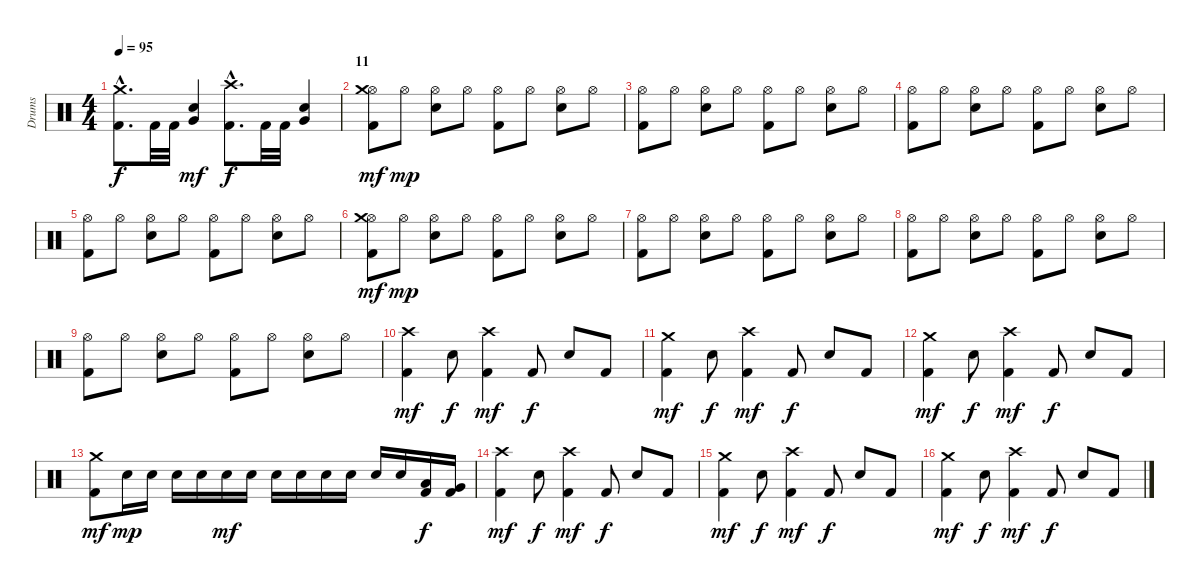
\track ("Drums" "Drums") {instrument percussion}
\staff {score}
\articulation defaults
\ts (4 4)
\tempo 95
\clef neutral
\ks c
("Kick (hit) 2"{hac} "Crash medium (hit)"{hac}).8{d dy f} "Kick (hit) 2".32 "Kick (hit) 2".32 ("Electric Snare (hit)" "Very Low Tom (hit)").4{dy mf} ("Kick (hit) 2"{hac} "Crash high (hit)"{hac}).8{d dy f} "Kick (hit) 2".32 "Kick (hit) 2".32 ("Electric Snare (hit)" "Very Low Tom (hit)").4 |
\section ("" "11")
("Kick (hit) 2" "Hi-Hat (open)" "Crash medium (hit)").8{dy mf} "Hi-Hat (open)".8{dy mp} ("Electric Snare (hit)" "Hi-Hat (open)").8 "Hi-Hat (open)".8 ("Kick (hit) 2" "Hi-Hat (open)").8 "Hi-Hat (open)".8 ("Electric Snare (hit)" "Hi-Hat (open)").8 "Hi-Hat (open)".8 |
("Kick (hit) 2" "Hi-Hat (open)").8 "Hi-Hat (open)".8 ("Electric Snare (hit)" "Hi-Hat (open)").8 "Hi-Hat (open)".8 ("Kick (hit) 2" "Hi-Hat (open)").8 "Hi-Hat (open)".8 ("Electric Snare (hit)" "Hi-Hat (open)").8 "Hi-Hat (open)".8 |
("Kick (hit) 2" "Hi-Hat (open)").8 "Hi-Hat (open)".8 ("Electric Snare (hit)" "Hi-Hat (open)").8 "Hi-Hat (open)".8 ("Kick (hit) 2" "Hi-Hat (open)").8 "Hi-Hat (open)".8 ("Electric Snare (hit)" "Hi-Hat (open)").8 "Hi-Hat (open)".8 |
("Kick (hit) 2" "Hi-Hat (open)").8 "Hi-Hat (open)".8 ("Electric Snare (hit)" "Hi-Hat (open)").8 "Hi-Hat (open)".8 ("Kick (hit) 2" "Hi-Hat (open)").8 "Hi-Hat (open)".8 ("Electric Snare (hit)" "Hi-Hat (open)").8 "Hi-Hat (open)".8 |
("Kick (hit) 2" "Hi-Hat (open)" "Crash medium (hit)").8{dy mf} "Hi-Hat (open)".8{dy mp} ("Electric Snare (hit)" "Hi-Hat (open)").8 "Hi-Hat (open)".8 ("Kick (hit) 2" "Hi-Hat (open)").8 "Hi-Hat (open)".8 ("Electric Snare (hit)" "Hi-Hat (open)").8 "Hi-Hat (open)".8 |
("Kick (hit) 2" "Hi-Hat (open)").8 "Hi-Hat (open)".8 ("Electric Snare (hit)" "Hi-Hat (open)").8 "Hi-Hat (open)".8 ("Kick (hit) 2" "Hi-Hat (open)").8 "Hi-Hat (open)".8 ("Electric Snare (hit)" "Hi-Hat (open)").8 "Hi-Hat (open)".8 |
("Kick (hit) 2" "Hi-Hat (open)").8 "Hi-Hat (open)".8 ("Electric Snare (hit)" "Hi-Hat (open)").8 "Hi-Hat (open)".8 ("Kick (hit) 2" "Hi-Hat (open)").8 "Hi-Hat (open)".8 ("Electric Snare (hit)" "Hi-Hat (open)").8 "Hi-Hat (open)".8 |
("Kick (hit) 2" "Hi-Hat (open)").8 "Hi-Hat (open)".8 ("Electric Snare (hit)" "Hi-Hat (open)").8 "Hi-Hat (open)".8 ("Kick (hit) 2" "Hi-Hat (open)").8 "Hi-Hat (open)".8 ("Electric Snare (hit)" "Hi-Hat (open)").8 "Hi-Hat (open)".8 |
("Kick (hit) 2" "Crash high (hit)").4{dy mf} "Electric Snare (hit)".8{dy f} ("Kick (hit) 2" "Crash high (hit)").4{dy mf} "Kick (hit) 2".8{dy f} "Electric Snare (hit)".8 "Kick (hit) 2".8 |
("Kick (hit) 2" "Crash medium (hit)").4{dy mf} "Electric Snare (hit)".8{dy f} ("Kick (hit) 2" "Crash high (hit)").4{dy mf} "Kick (hit) 2".8{dy f} "Electric Snare (hit)".8 "Kick (hit) 2".8 |
("Kick (hit) 2" "Crash medium (hit)").4{dy mf} "Electric Snare (hit)".8{dy f} ("Kick (hit) 2" "Crash high (hit)").4{dy mf} "Kick (hit) 2".8{dy f} "Electric Snare (hit)".8 "Kick (hit) 2".8 |
("Kick (hit) 2" "Crash medium (hit)").8{dy mf} "Electric Snare (hit)".16{dy mp} "Electric Snare (hit)".16 "Electric Snare (hit)".16 "Electric Snare (hit)".16 "Electric Snare (hit)".16{dy mf} "Electric Snare (hit)".16 "Electric Snare (hit)".16 "Electric Snare (hit)".16 "Electric Snare (hit)".16 "Electric Snare (hit)".16 "Electric Snare (hit)".16 "Electric Snare (hit)".16 ("Kick (hit) 2" "Low Tom (hit)").16{dy f} ("Kick (hit) 2" "Very Low Tom (hit)").16 |
("Kick (hit) 2" "Crash high (hit)").4{dy mf} "Electric Snare (hit)".8{dy f} ("Kick (hit) 2" "Crash high (hit)").4{dy mf} "Kick (hit) 2".8{dy f} "Electric Snare (hit)".8 "Kick (hit) 2".8 |
("Kick (hit) 2" "Crash medium (hit)").4{dy mf} "Electric Snare (hit)".8{dy f} ("Kick (hit) 2" "Crash high (hit)").4{dy mf} "Kick (hit) 2".8{dy f} "Electric Snare (hit)".8 "Kick (hit) 2".8 |
("Kick (hit) 2" "Crash medium (hit)").4{dy mf} "Electric Snare (hit)".8{dy f} ("Kick (hit) 2" "Crash high (hit)").4{dy mf} "Kick (hit) 2".8{dy f} "Electric Snare (hit)".8 "Kick (hit) 2".8
